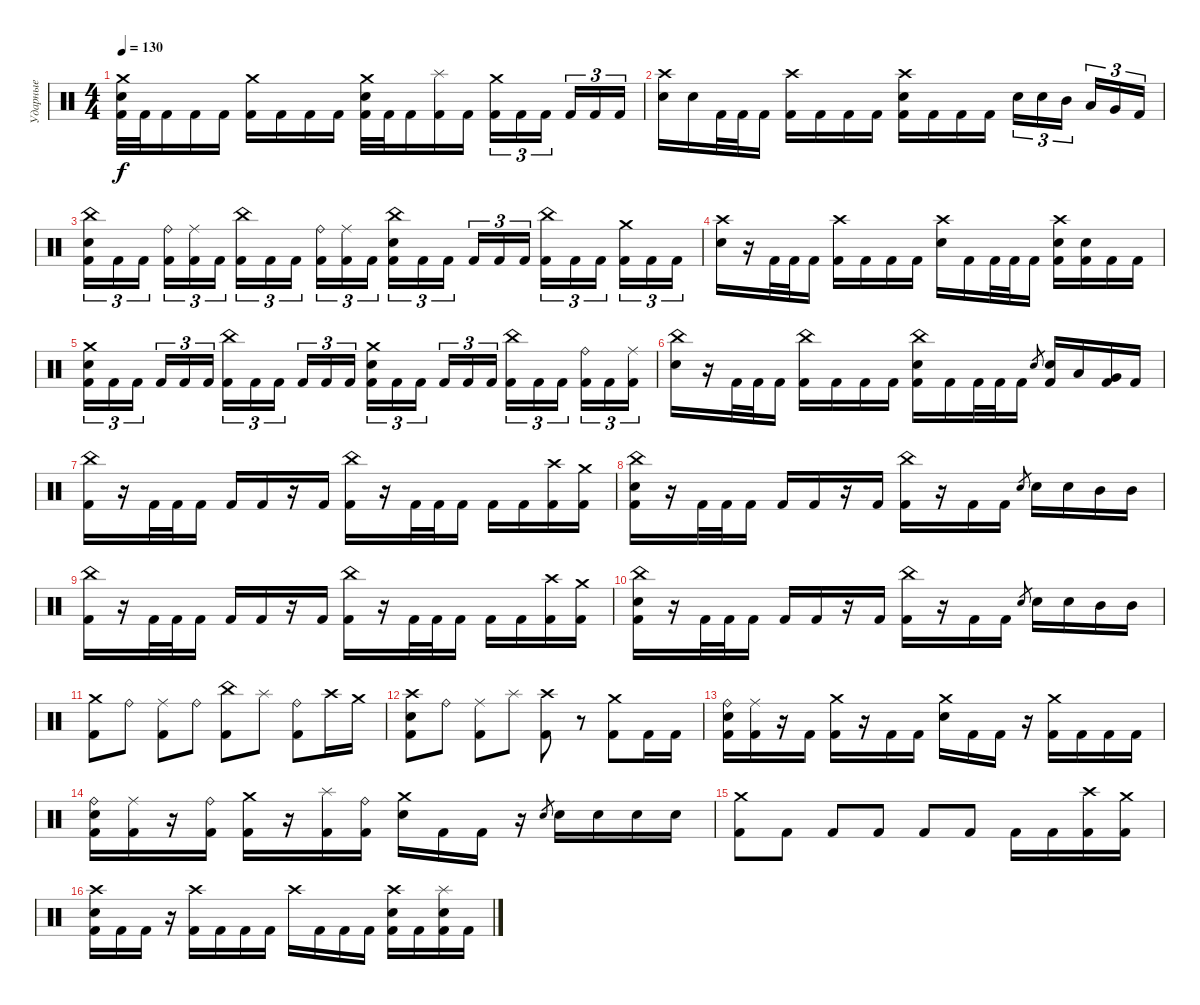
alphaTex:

\track ("Ударные" "Ударные") {instrument percussion}
\staff {score}
\articulation defaults
\ts (4 4)
\tempo 130
\clef neutral
\ks c
("Crash medium (hit)" "Electric Snare (hit)" "Kick (hit) 2").32{dy f} "Kick (hit) 2".32 "Kick (hit) 2".16 "Kick (hit) 2".16 "Kick (hit) 2".16 ("Crash medium (hit)" "Kick (hit) 2").16 "Kick (hit) 2".16 "Kick (hit) 2".16 "Kick (hit) 2".16 ("Crash medium (hit)" "Electric Snare (hit)" "Kick (hit) 2").32 "Kick (hit) 2".32 "Kick (hit) 2".16 ("Splash (hit)" "Kick (hit) 2").16 "Kick (hit) 2".16 ("Crash medium (hit)" "Kick (hit) 2").16{tu (3 2)} "Kick (hit) 2".16{tu (3 2)} "Kick (hit) 2".16{tu (3 2) beam splitsecondary} "Kick (hit) 2".16{tu (3 2)} "Kick (hit) 2".16{tu (3 2)} "Kick (hit) 2".16{tu (3 2)} |
("Crash high (hit)" "Electric Snare (hit)").16 "Electric Snare (hit)".16 "Kick (hit) 2".32 "Kick (hit) 2".32 "Kick (hit) 2".16 ("Crash high (hit)" "Kick (hit) 2").16 "Kick (hit) 2".16 "Kick (hit) 2".16 "Kick (hit) 2".16 ("Crash high (hit)" "Electric Snare (hit)" "Kick (hit) 2").16 "Kick (hit) 2".16 "Kick (hit) 2".16 "Kick (hit) 2".16 "Electric Snare (hit)".16{tu (3 2)} "Electric Snare (hit)".16{tu (3 2)} "Mid Tom (hit)".16{tu (3 2) beam splitsecondary} "Low Tom (hit)".16{tu (3 2)} "Very Low Tom (hit)".16{tu (3 2)} "Kick (hit) 2".16{tu (3 2)} |
("China (hit)" "Electric Snare (hit)" "Kick (hit) 2").16{tu (3 2)} "Kick (hit) 2".16{tu (3 2)} "Kick (hit) 2".16{tu (3 2) beam splitsecondary} ("Ride (bell)" "Kick (hit) 2").16{tu (3 2)} ("Ride (middle)" "Kick (hit) 2").16{tu (3 2)} "Kick (hit) 2".16{tu (3 2)} ("China (hit)" "Kick (hit) 2").16{tu (3 2)} "Kick (hit) 2".16{tu (3 2)} "Kick (hit) 2".16{tu (3 2) beam splitsecondary} ("Ride (bell)" "Kick (hit) 2").16{tu (3 2)} ("Ride (middle)" "Kick (hit) 2").16{tu (3 2)} "Kick (hit) 2".16{tu (3 2)} ("China (hit)" "Electric Snare (hit)" "Kick (hit) 2").16{tu (3 2)} "Kick (hit) 2".16{tu (3 2)} "Kick (hit) 2".16{tu (3 2) beam splitsecondary} "Kick (hit) 2".16{tu (3 2)} "Kick (hit) 2".16{tu (3 2)} "Kick (hit) 2".16{tu (3 2)} ("China (hit)" "Kick (hit) 2").16{tu (3 2)} "Kick (hit) 2".16{tu (3 2)} "Kick (hit) 2".16{tu (3 2) beam splitsecondary} ("Crash medium (hit)" "Kick (hit) 2").16{tu (3 2)} "Kick (hit) 2".16{tu (3 2)} "Kick (hit) 2".16{tu (3 2)} |
("Crash high (hit)" "Electric Snare (hit)").16 r.16 "Kick (hit) 2".32 "Kick (hit) 2".32 "Kick (hit) 2".16 ("Crash high (hit)" "Kick (hit) 2").16 "Kick (hit) 2".16 "Kick (hit) 2".16 "Kick (hit) 2".16 ("Crash high (hit)" "Electric Snare (hit)").16 "Kick (hit) 2".16 "Kick (hit) 2".32 "Kick (hit) 2".32 "Kick (hit) 2".16 ("Crash high (hit)" "Electric Snare (hit)" "Kick (hit) 2").16 ("Electric Snare (hit)" "Kick (hit) 2").16 "Kick (hit) 2".16 "Kick (hit) 2".16 |
("Crash medium (hit)" "Electric Snare (hit)" "Kick (hit) 2").16{tu (3 2)} "Kick (hit) 2".16{tu (3 2)} "Kick (hit) 2".16{tu (3 2) beam splitsecondary} "Kick (hit) 2".16{tu (3 2)} "Kick (hit) 2".16{tu (3 2)} "Kick (hit) 2".16{tu (3 2)} ("China (hit)" "Kick (hit) 2").16{tu (3 2)} "Kick (hit) 2".16{tu (3 2)} "Kick (hit) 2".16{tu (3 2) beam splitsecondary} "Kick (hit) 2".16{tu (3 2)} "Kick (hit) 2".16{tu (3 2)} "Kick (hit) 2".16{tu (3 2)} ("Crash medium (hit)" "Electric Snare (hit)" "Kick (hit) 2").16{tu (3 2)} "Kick (hit) 2".16{tu (3 2)} "Kick (hit) 2".16{tu (3 2) beam splitsecondary} "Kick (hit) 2".16{tu (3 2)} "Kick (hit) 2".16{tu (3 2)} "Kick (hit) 2".16{tu (3 2)} ("China (hit)" "Kick (hit) 2").16{tu (3 2)} "Kick (hit) 2".16{tu (3 2)} "Kick (hit) 2".16{tu (3 2) beam splitsecondary} ("Ride (bell)" "Kick (hit) 2").16{tu (3 2)} "Kick (hit) 2".16{tu (3 2)} ("Ride (middle)" "Kick (hit) 2").16{tu (3 2)} |
("China (hit)" "Electric Snare (hit)").16 r.16 "Kick (hit) 2".32 "Kick (hit) 2".32 "Kick (hit) 2".16 ("China (hit)" "Kick (hit) 2").16 "Kick (hit) 2".16 "Kick (hit) 2".16 "Kick (hit) 2".16 ("China (hit)" "Electric Snare (hit)" "Kick (hit) 2").16 "Kick (hit) 2".16 "Kick (hit) 2".32 "Kick (hit) 2".32 "Kick (hit) 2".16 "Electric Snare (hit)".8{gr} ("Electric Snare (hit)" "Kick (hit) 2").16 "Low Tom (hit)".16 ("Very Low Tom (hit)" "Kick (hit) 2").16 "Kick (hit) 2".16 |
("China (hit)" "Kick (hit) 2").16 r.16 "Kick (hit) 2".32 "Kick (hit) 2".32 "Kick (hit) 2".16 "Kick (hit) 2".16 "Kick (hit) 2".16 r.16 "Kick (hit) 2".16 ("China (hit)" "Kick (hit) 2").16 r.16 "Kick (hit) 2".32 "Kick (hit) 2".32 "Kick (hit) 2".16 "Kick (hit) 2".16 "Kick (hit) 2".16 ("Crash high (hit)" "Kick (hit) 2").16 ("Crash medium (hit)" "Kick (hit) 2").16 |
("China (hit)" "Electric Snare (hit)" "Kick (hit) 2").16 r.16 "Kick (hit) 2".32 "Kick (hit) 2".32 "Kick (hit) 2".16 "Kick (hit) 2".16 "Kick (hit) 2".16 r.16 "Kick (hit) 2".16 ("China (hit)" "Kick (hit) 2").16 r.16 "Kick (hit) 2".16 "Kick (hit) 2".16 "Electric Snare (hit)".8{gr} "Electric Snare (hit)".16 "Electric Snare (hit)".16 "Mid Tom (hit)".16 "Mid Tom (hit)".16 |
("China (hit)" "Kick (hit) 2").16 r.16 "Kick (hit) 2".32 "Kick (hit) 2".32 "Kick (hit) 2".16 "Kick (hit) 2".16 "Kick (hit) 2".16 r.16 "Kick (hit) 2".16 ("China (hit)" "Kick (hit) 2").16 r.16 "Kick (hit) 2".32 "Kick (hit) 2".32 "Kick (hit) 2".16 "Kick (hit) 2".16 "Kick (hit) 2".16 ("Crash high (hit)" "Kick (hit) 2").16 ("Crash medium (hit)" "Kick (hit) 2").16 |
("China (hit)" "Electric Snare (hit)" "Kick (hit) 2").16 r.16 "Kick (hit) 2".32 "Kick (hit) 2".32 "Kick (hit) 2".16 "Kick (hit) 2".16 "Kick (hit) 2".16 r.16 "Kick (hit) 2".16 ("China (hit)" "Kick (hit) 2").16 r.16 "Kick (hit) 2".16 "Kick (hit) 2".16 "Electric Snare (hit)".8{gr} "Electric Snare (hit)".16 "Electric Snare (hit)".16 "Mid Tom (hit)".16 "Mid Tom (hit)".16 |
("Crash medium (hit)" "Kick (hit) 2").8 "Ride (bell)".8 ("Ride (middle)" "Kick (hit) 2").8 "Ride (bell)".8 ("China (hit)" "Kick (hit) 2").8 "Splash (hit)".8 ("Ride (bell)" "Kick (hit) 2").8 "Crash high (hit)".16 "Crash medium (hit)".16 |
("Crash high (hit)" "Electric Snare (hit)" "Kick (hit) 2").8 "Ride (bell)".8 ("Ride (middle)" "Kick (hit) 2").8 "Splash (hit)".8 ("Crash high (hit)" "Kick (hit) 2").8 r.8 ("Crash medium (hit)" "Kick (hit) 2").8 "Kick (hit) 2".16 "Kick (hit) 2".16 |
("Ride (bell)" "Electric Snare (hit)" "Kick (hit) 2").16 ("Ride (middle)" "Kick (hit) 2").16 r.16 "Kick (hit) 2".16 ("Crash medium (hit)" "Kick (hit) 2").16 r.16 "Kick (hit) 2".16 "Kick (hit) 2".16 ("Crash medium (hit)" "Electric Snare (hit)").16 "Kick (hit) 2".16 "Kick (hit) 2".16 r.16 ("Crash medium (hit)" "Kick (hit) 2").16 "Kick (hit) 2".16 "Kick (hit) 2".16 "Kick (hit) 2".16 |
("Ride (bell)" "Electric Snare (hit)" "Kick (hit) 2").16 ("Ride (middle)" "Kick (hit) 2").16 r.16 ("Ride (bell)" "Kick (hit) 2").16 ("Crash medium (hit)" "Kick (hit) 2").16 r.16 ("Splash (hit)" "Kick (hit) 2").16 ("Ride (bell)" "Kick (hit) 2").16 ("Crash medium (hit)" "Electric Snare (hit)").16 "Kick (hit) 2".16 "Kick (hit) 2".16 r.16 "Electric Snare (hit)".8{gr} "Electric Snare (hit)".16 "Electric Snare (hit)".16 "Electric Snare (hit)".16 "Electric Snare (hit)".16 |
("Crash medium (hit)" "Kick (hit) 2").8 "Kick (hit) 2".8 "Kick (hit) 2".8 "Kick (hit) 2".8 "Kick (hit) 2".8 "Kick (hit) 2".8 "Kick (hit) 2".16 "Kick (hit) 2".16 ("Crash high (hit)" "Kick (hit) 2").16 ("Crash medium (hit)" "Kick (hit) 2").16 |
("Crash high (hit)" "Electric Snare (hit)" "Kick (hit) 2").16 "Kick (hit) 2".16 "Kick (hit) 2".16 r.16 ("Crash high (hit)" "Kick (hit) 2").16 "Kick (hit) 2".16 "Kick (hit) 2".16 "Kick (hit) 2".16 "Crash high (hit)".16 "Kick (hit) 2".16 "Kick (hit) 2".16 "Kick (hit) 2".16 ("Crash high (hit)" "Electric Snare (hit)" "Kick (hit) 2").16 "Kick (hit) 2".16 ("Splash (hit)" "Electric Snare (hit)" "Kick (hit) 2").16 "Kick (hit) 2".16
